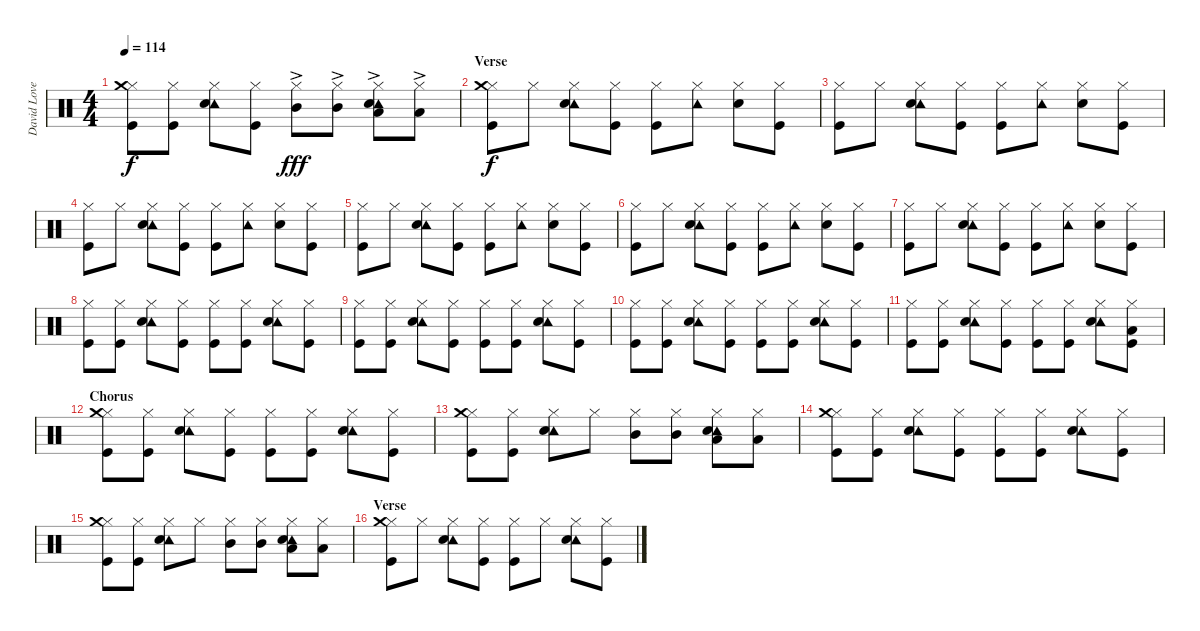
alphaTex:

\track ("David Lovering" "David Love") {instrument percussion}
\staff {score}
\articulation defaults
\ts (4 4)
\tempo 114
\clef neutral
\ks c
("Hi-Hat (closed)" "Crash medium (hit)" "Kick (hit)").8{dy f} ("Hi-Hat (closed)" "Kick (hit)").8 ("Hi-Hat (closed)" "Tambourine (hit)" "Snare (hit) 2").8 ("Hi-Hat (closed)" "Kick (hit)").8 ("Hi-Hat (closed)" "Mid Tom (hit)"{ac}).8{dy fff} ("Hi-Hat (closed)" "Mid Tom (hit)"{ac}).8 ("Hi-Hat (closed)" "Tambourine (hit)" "Snare (hit) 2" "Low Tom (hit)"{ac}).8 ("Hi-Hat (closed)" "Low Tom (hit)"{ac}).8 |
\section ("" "Verse")
("Hi-Hat (closed)" "Crash medium (hit)" "Kick (hit)").8{dy f} "Hi-Hat (closed)".8 ("Hi-Hat (closed)" "Tambourine (hit)" "Snare (hit) 2").8 ("Hi-Hat (closed)" "Kick (hit)").8 ("Hi-Hat (closed)" "Kick (hit)").8 ("Hi-Hat (closed)" "Tambourine (hit)").8 ("Hi-Hat (closed)" "Snare (hit) 2").8 ("Hi-Hat (closed)" "Kick (hit)").8 |
("Hi-Hat (closed)" "Kick (hit)").8 "Hi-Hat (closed)".8 ("Hi-Hat (closed)" "Tambourine (hit)" "Snare (hit) 2").8 ("Hi-Hat (closed)" "Kick (hit)").8 ("Hi-Hat (closed)" "Kick (hit)").8 ("Hi-Hat (closed)" "Tambourine (hit)").8 ("Hi-Hat (closed)" "Snare (hit) 2").8 ("Hi-Hat (closed)" "Kick (hit)").8 |
("Hi-Hat (closed)" "Kick (hit)").8 "Hi-Hat (closed)".8 ("Hi-Hat (closed)" "Tambourine (hit)" "Snare (hit) 2").8 ("Hi-Hat (closed)" "Kick (hit)").8 ("Hi-Hat (closed)" "Kick (hit)").8 ("Hi-Hat (closed)" "Tambourine (hit)").8 ("Hi-Hat (closed)" "Snare (hit) 2").8 ("Hi-Hat (closed)" "Kick (hit)").8 |
("Hi-Hat (closed)" "Kick (hit)").8 "Hi-Hat (closed)".8 ("Hi-Hat (closed)" "Tambourine (hit)" "Snare (hit) 2").8 ("Hi-Hat (closed)" "Kick (hit)").8 ("Hi-Hat (closed)" "Kick (hit)").8 ("Hi-Hat (closed)" "Tambourine (hit)").8 ("Hi-Hat (closed)" "Snare (hit) 2").8 ("Hi-Hat (closed)" "Kick (hit)").8 |
("Hi-Hat (closed)" "Kick (hit)").8 "Hi-Hat (closed)".8 ("Hi-Hat (closed)" "Tambourine (hit)" "Snare (hit) 2").8 ("Hi-Hat (closed)" "Kick (hit)").8 ("Hi-Hat (closed)" "Kick (hit)").8 ("Hi-Hat (closed)" "Tambourine (hit)").8 ("Hi-Hat (closed)" "Snare (hit) 2").8 ("Hi-Hat (closed)" "Kick (hit)").8 |
("Hi-Hat (closed)" "Kick (hit)").8 "Hi-Hat (closed)".8 ("Hi-Hat (closed)" "Tambourine (hit)" "Snare (hit) 2").8 ("Hi-Hat (closed)" "Kick (hit)").8 ("Hi-Hat (closed)" "Kick (hit)").8 ("Hi-Hat (closed)" "Tambourine (hit)").8 ("Hi-Hat (closed)" "Snare (hit) 2").8 ("Hi-Hat (closed)" "Kick (hit)").8 |
("Hi-Hat (closed)" "Kick (hit)").8 ("Hi-Hat (closed)" "Kick (hit)").8 ("Hi-Hat (closed)" "Tambourine (hit)" "Snare (hit) 2").8 ("Hi-Hat (closed)" "Kick (hit)").8 ("Hi-Hat (closed)" "Kick (hit)").8 ("Hi-Hat (closed)" "Kick (hit)").8 ("Hi-Hat (closed)" "Tambourine (hit)" "Snare (hit) 2").8 ("Hi-Hat (closed)" "Kick (hit)").8 |
("Hi-Hat (closed)" "Kick (hit)").8 ("Hi-Hat (closed)" "Kick (hit)").8 ("Hi-Hat (closed)" "Tambourine (hit)" "Snare (hit) 2").8 ("Hi-Hat (closed)" "Kick (hit)").8 ("Hi-Hat (closed)" "Kick (hit)").8 ("Hi-Hat (closed)" "Kick (hit)").8 ("Hi-Hat (closed)" "Tambourine (hit)" "Snare (hit) 2").8 ("Hi-Hat (closed)" "Kick (hit)").8 |
("Hi-Hat (closed)" "Kick (hit)").8 ("Hi-Hat (closed)" "Kick (hit)").8 ("Hi-Hat (closed)" "Tambourine (hit)" "Snare (hit) 2").8 ("Hi-Hat (closed)" "Kick (hit)").8 ("Hi-Hat (closed)" "Kick (hit)").8 ("Hi-Hat (closed)" "Kick (hit)").8 ("Hi-Hat (closed)" "Tambourine (hit)" "Snare (hit) 2").8 ("Hi-Hat (closed)" "Kick (hit)").8 |
("Hi-Hat (closed)" "Kick (hit)").8 ("Hi-Hat (closed)" "Kick (hit)").8 ("Hi-Hat (closed)" "Tambourine (hit)" "Snare (hit) 2").8 ("Hi-Hat (closed)" "Kick (hit)").8 ("Hi-Hat (closed)" "Kick (hit)").8 ("Hi-Hat (closed)" "Kick (hit)").8 ("Hi-Hat (closed)" "Tambourine (hit)" "Snare (hit) 2").8 ("Hi-Hat (closed)" "Low Tom (hit)" "Kick (hit)").8 |
\section ("" "Chorus")
("Hi-Hat (closed)" "Crash medium (hit)" "Kick (hit)").8 ("Hi-Hat (closed)" "Kick (hit)").8 ("Hi-Hat (closed)" "Tambourine (hit)" "Snare (hit) 2").8 ("Hi-Hat (closed)" "Kick (hit)").8 ("Hi-Hat (closed)" "Kick (hit)").8 ("Hi-Hat (closed)" "Kick (hit)").8 ("Hi-Hat (closed)" "Tambourine (hit)" "Snare (hit) 2").8 ("Hi-Hat (closed)" "Kick (hit)").8 |
("Hi-Hat (closed)" "Crash medium (hit)" "Kick (hit)").8 ("Hi-Hat (closed)" "Kick (hit)").8 ("Hi-Hat (closed)" "Tambourine (hit)" "Snare (hit) 2").8 "Hi-Hat (closed)".8 ("Hi-Hat (closed)" "Mid Tom (hit)").8 ("Hi-Hat (closed)" "Mid Tom (hit)").8 ("Hi-Hat (closed)" "Tambourine (hit)" "Snare (hit) 2" "Low Tom (hit)").8 ("Hi-Hat (closed)" "Low Tom (hit)").8 |
("Hi-Hat (closed)" "Crash medium (hit)" "Kick (hit)").8 ("Hi-Hat (closed)" "Kick (hit)").8 ("Hi-Hat (closed)" "Tambourine (hit)" "Snare (hit) 2").8 ("Hi-Hat (closed)" "Kick (hit)").8 ("Hi-Hat (closed)" "Kick (hit)").8 ("Hi-Hat (closed)" "Kick (hit)").8 ("Hi-Hat (closed)" "Tambourine (hit)" "Snare (hit) 2").8 ("Hi-Hat (closed)" "Kick (hit)").8 |
("Hi-Hat (closed)" "Crash medium (hit)" "Kick (hit)").8 ("Hi-Hat (closed)" "Kick (hit)").8 ("Hi-Hat (closed)" "Tambourine (hit)" "Snare (hit) 2").8 "Hi-Hat (closed)".8 ("Hi-Hat (closed)" "Mid Tom (hit)").8 ("Hi-Hat (closed)" "Mid Tom (hit)").8 ("Hi-Hat (closed)" "Tambourine (hit)" "Snare (hit) 2" "Low Tom (hit)").8 ("Hi-Hat (closed)" "Low Tom (hit)").8 |
\section ("" "Verse")
("Hi-Hat (closed)" "Crash medium (hit)" "Kick (hit)").8 "Hi-Hat (closed)".8 ("Hi-Hat (closed)" "Tambourine (hit)" "Snare (hit) 2").8 ("Hi-Hat (closed)" "Kick (hit)").8 ("Hi-Hat (closed)" "Kick (hit)").8 "Hi-Hat (closed)".8 ("Hi-Hat (closed)" "Tambourine (hit)" "Snare (hit) 2").8 ("Hi-Hat (closed)" "Kick (hit)").8
